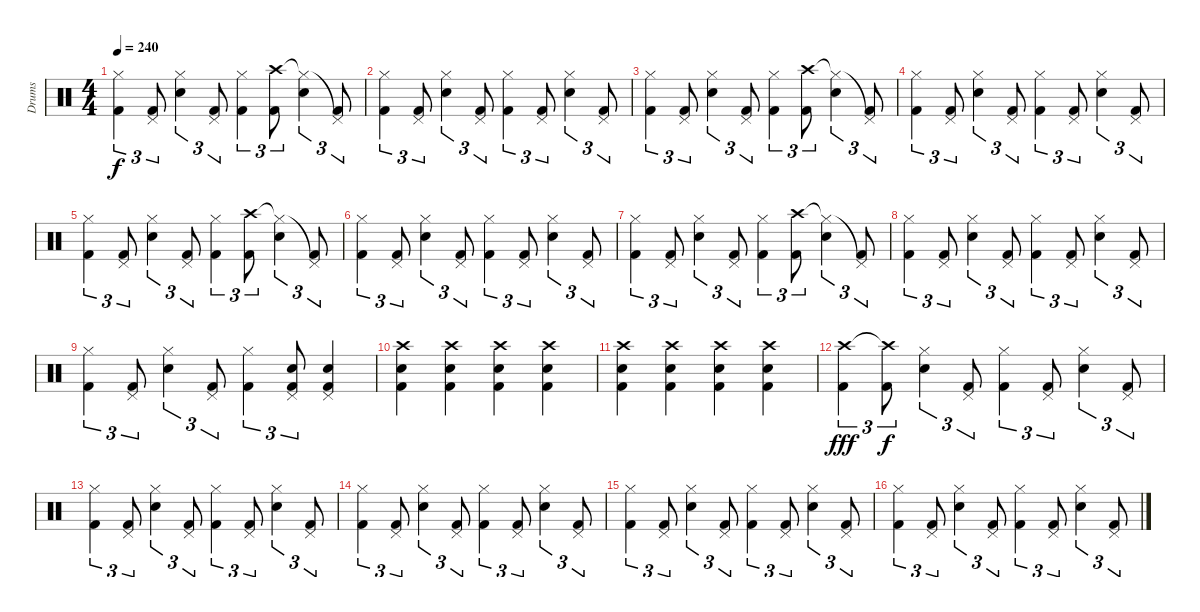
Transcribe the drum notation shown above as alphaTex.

\track ("Drums" "Drums") {instrument percussion}
\staff {score}
\articulation defaults
\ts (4 4)
\tempo 240
\clef neutral
\ks c
("Hi-Hat (closed)" "Kick (hit) 2").4{tu (3 2) dy f} ("Pedal Hi-Hat (hit)" "Kick (hit) 2").8{tu (3 2)} ("Hi-Hat (closed)" "Snare (hit) 2").4{tu (3 2)} ("Pedal Hi-Hat (hit)" "Kick (hit) 2").8{tu (3 2)} ("Hi-Hat (closed)" "Kick (hit) 2").4{tu (3 2)} ("Crash high (hit)" "Kick (hit) 2").8{tu (3 2)} ("Hi-Hat (closed)"{t} "Snare (hit) 2").4{tu (3 2)} ("Pedal Hi-Hat (hit)"{t} "Kick (hit) 2").8{tu (3 2)} |
("Hi-Hat (closed)" "Kick (hit) 2").4{tu (3 2)} ("Pedal Hi-Hat (hit)" "Kick (hit) 2").8{tu (3 2)} ("Hi-Hat (closed)" "Snare (hit) 2").4{tu (3 2)} ("Pedal Hi-Hat (hit)" "Kick (hit) 2").8{tu (3 2)} ("Hi-Hat (closed)" "Kick (hit) 2").4{tu (3 2)} ("Pedal Hi-Hat (hit)" "Kick (hit) 2").8{tu (3 2)} ("Hi-Hat (closed)" "Snare (hit) 2").4{tu (3 2)} ("Pedal Hi-Hat (hit)" "Kick (hit) 2").8{tu (3 2)} |
("Hi-Hat (closed)" "Kick (hit) 2").4{tu (3 2)} ("Pedal Hi-Hat (hit)" "Kick (hit) 2").8{tu (3 2)} ("Hi-Hat (closed)" "Snare (hit) 2").4{tu (3 2)} ("Pedal Hi-Hat (hit)" "Kick (hit) 2").8{tu (3 2)} ("Hi-Hat (closed)" "Kick (hit) 2").4{tu (3 2)} ("Crash high (hit)" "Kick (hit) 2").8{tu (3 2)} ("Hi-Hat (closed)"{t} "Snare (hit) 2").4{tu (3 2)} ("Pedal Hi-Hat (hit)"{t} "Kick (hit) 2").8{tu (3 2)} |
("Hi-Hat (closed)" "Kick (hit) 2").4{tu (3 2)} ("Pedal Hi-Hat (hit)" "Kick (hit) 2").8{tu (3 2)} ("Hi-Hat (closed)" "Snare (hit) 2").4{tu (3 2)} ("Pedal Hi-Hat (hit)" "Kick (hit) 2").8{tu (3 2)} ("Hi-Hat (closed)" "Kick (hit) 2").4{tu (3 2)} ("Pedal Hi-Hat (hit)" "Kick (hit) 2").8{tu (3 2)} ("Hi-Hat (closed)" "Snare (hit) 2").4{tu (3 2)} ("Pedal Hi-Hat (hit)" "Kick (hit) 2").8{tu (3 2)} |
("Hi-Hat (closed)" "Kick (hit) 2").4{tu (3 2)} ("Pedal Hi-Hat (hit)" "Kick (hit) 2").8{tu (3 2)} ("Hi-Hat (closed)" "Snare (hit) 2").4{tu (3 2)} ("Pedal Hi-Hat (hit)" "Kick (hit) 2").8{tu (3 2)} ("Hi-Hat (closed)" "Kick (hit) 2").4{tu (3 2)} ("Crash high (hit)" "Kick (hit) 2").8{tu (3 2)} ("Hi-Hat (closed)"{t} "Snare (hit) 2").4{tu (3 2)} ("Pedal Hi-Hat (hit)"{t} "Kick (hit) 2").8{tu (3 2)} |
("Hi-Hat (closed)" "Kick (hit) 2").4{tu (3 2)} ("Pedal Hi-Hat (hit)" "Kick (hit) 2").8{tu (3 2)} ("Hi-Hat (closed)" "Snare (hit) 2").4{tu (3 2)} ("Pedal Hi-Hat (hit)" "Kick (hit) 2").8{tu (3 2)} ("Hi-Hat (closed)" "Kick (hit) 2").4{tu (3 2)} ("Pedal Hi-Hat (hit)" "Kick (hit) 2").8{tu (3 2)} ("Hi-Hat (closed)" "Snare (hit) 2").4{tu (3 2)} ("Pedal Hi-Hat (hit)" "Kick (hit) 2").8{tu (3 2)} |
("Hi-Hat (closed)" "Kick (hit) 2").4{tu (3 2)} ("Pedal Hi-Hat (hit)" "Kick (hit) 2").8{tu (3 2)} ("Hi-Hat (closed)" "Snare (hit) 2").4{tu (3 2)} ("Pedal Hi-Hat (hit)" "Kick (hit) 2").8{tu (3 2)} ("Hi-Hat (closed)" "Kick (hit) 2").4{tu (3 2)} ("Crash high (hit)" "Kick (hit) 2").8{tu (3 2)} ("Hi-Hat (closed)"{t} "Snare (hit) 2").4{tu (3 2)} ("Pedal Hi-Hat (hit)"{t} "Kick (hit) 2").8{tu (3 2)} |
("Hi-Hat (closed)" "Kick (hit) 2").4{tu (3 2)} ("Pedal Hi-Hat (hit)" "Kick (hit) 2").8{tu (3 2)} ("Hi-Hat (closed)" "Snare (hit) 2").4{tu (3 2)} ("Pedal Hi-Hat (hit)" "Kick (hit) 2").8{tu (3 2)} ("Hi-Hat (closed)" "Kick (hit) 2").4{tu (3 2)} ("Pedal Hi-Hat (hit)" "Kick (hit) 2").8{tu (3 2)} ("Hi-Hat (closed)" "Snare (hit) 2").4{tu (3 2)} ("Pedal Hi-Hat (hit)" "Kick (hit) 2").8{tu (3 2)} |
("Hi-Hat (closed)" "Kick (hit) 2").4{tu (3 2)} ("Pedal Hi-Hat (hit)" "Kick (hit) 2").8{tu (3 2)} ("Hi-Hat (closed)" "Snare (hit) 2").4{tu (3 2)} ("Pedal Hi-Hat (hit)" "Kick (hit) 2").8{tu (3 2)} ("Hi-Hat (closed)" "Kick (hit) 2").4{tu (3 2)} ("Pedal Hi-Hat (hit)" "Snare (hit) 2" "Kick (hit) 2").8{tu (3 2)} ("Pedal Hi-Hat (hit)" "Snare (hit) 2" "Kick (hit) 2").4 |
("Crash high (hit)" "Snare (hit) 2" "Kick (hit) 2").4 ("Crash high (hit)" "Snare (hit) 2" "Kick (hit) 2").4 ("Crash high (hit)" "Snare (hit) 2" "Kick (hit) 2").4 ("Crash high (hit)" "Snare (hit) 2" "Kick (hit) 2").4 |
("Crash high (hit)" "Snare (hit) 2" "Kick (hit) 2").4 ("Crash high (hit)" "Snare (hit) 2" "Kick (hit) 2").4 ("Crash high (hit)" "Snare (hit) 2" "Kick (hit) 2").4 ("Crash high (hit)" "Snare (hit) 2" "Kick (hit) 2").4 |
("Crash high (hit)" "Kick (hit) 2").4{tu (3 2) dy fff} ("Crash high (hit)"{t} "Kick (hit) 2").8{tu (3 2) dy f} ("Hi-Hat (closed)" "Snare (hit) 2").4{tu (3 2)} ("Pedal Hi-Hat (hit)" "Kick (hit) 2").8{tu (3 2)} ("Hi-Hat (closed)" "Kick (hit) 2").4{tu (3 2)} ("Pedal Hi-Hat (hit)" "Kick (hit) 2").8{tu (3 2)} ("Hi-Hat (closed)" "Snare (hit) 2").4{tu (3 2)} ("Pedal Hi-Hat (hit)" "Kick (hit) 2").8{tu (3 2)} |
("Hi-Hat (closed)" "Kick (hit) 2").4{tu (3 2)} ("Pedal Hi-Hat (hit)" "Kick (hit) 2").8{tu (3 2)} ("Hi-Hat (closed)" "Snare (hit) 2").4{tu (3 2)} ("Pedal Hi-Hat (hit)" "Kick (hit) 2").8{tu (3 2)} ("Hi-Hat (closed)" "Kick (hit) 2").4{tu (3 2)} ("Pedal Hi-Hat (hit)" "Kick (hit) 2").8{tu (3 2)} ("Hi-Hat (closed)" "Snare (hit) 2").4{tu (3 2)} ("Pedal Hi-Hat (hit)" "Kick (hit) 2").8{tu (3 2)} |
("Hi-Hat (closed)" "Kick (hit) 2").4{tu (3 2)} ("Pedal Hi-Hat (hit)" "Kick (hit) 2").8{tu (3 2)} ("Hi-Hat (closed)" "Snare (hit) 2").4{tu (3 2)} ("Pedal Hi-Hat (hit)" "Kick (hit) 2").8{tu (3 2)} ("Hi-Hat (closed)" "Kick (hit) 2").4{tu (3 2)} ("Pedal Hi-Hat (hit)" "Kick (hit) 2").8{tu (3 2)} ("Hi-Hat (closed)" "Snare (hit) 2").4{tu (3 2)} ("Pedal Hi-Hat (hit)" "Kick (hit) 2").8{tu (3 2)} |
("Hi-Hat (closed)" "Kick (hit) 2").4{tu (3 2)} ("Pedal Hi-Hat (hit)" "Kick (hit) 2").8{tu (3 2)} ("Hi-Hat (closed)" "Snare (hit) 2").4{tu (3 2)} ("Pedal Hi-Hat (hit)" "Kick (hit) 2").8{tu (3 2)} ("Hi-Hat (closed)" "Kick (hit) 2").4{tu (3 2)} ("Pedal Hi-Hat (hit)" "Kick (hit) 2").8{tu (3 2)} ("Hi-Hat (closed)" "Snare (hit) 2").4{tu (3 2)} ("Pedal Hi-Hat (hit)" "Kick (hit) 2").8{tu (3 2)} |
("Hi-Hat (closed)" "Kick (hit) 2").4{tu (3 2)} ("Pedal Hi-Hat (hit)" "Kick (hit) 2").8{tu (3 2)} ("Hi-Hat (closed)" "Snare (hit) 2").4{tu (3 2)} ("Pedal Hi-Hat (hit)" "Kick (hit) 2").8{tu (3 2)} ("Hi-Hat (closed)" "Kick (hit) 2").4{tu (3 2)} ("Pedal Hi-Hat (hit)" "Kick (hit) 2").8{tu (3 2)} ("Hi-Hat (closed)" "Snare (hit) 2").4{tu (3 2)} ("Pedal Hi-Hat (hit)" "Kick (hit) 2").8{tu (3 2)}
